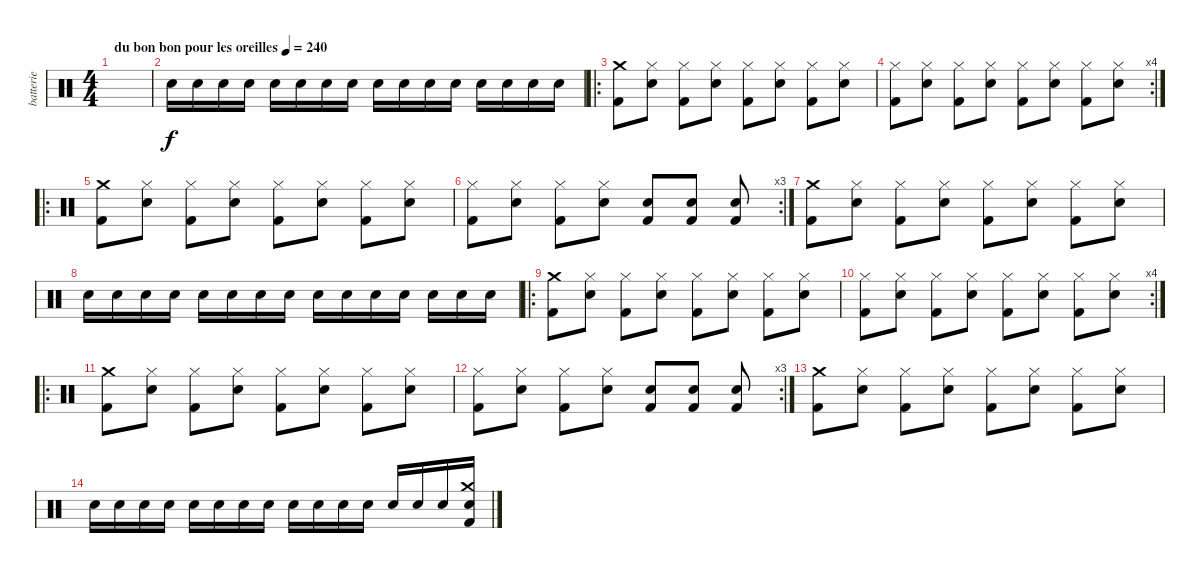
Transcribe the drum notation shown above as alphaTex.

\track ("batterie" "batterie") {instrument percussion}
\staff {score}
\articulation defaults
\ts (4 4)
\tempo (240 "du bon bon pour les oreilles")
\clef neutral
\ks c
|
"Snare (hit) 2".16 "Snare (hit) 2".16 "Snare (hit) 2".16 "Snare (hit) 2".16 "Snare (hit) 2".16 "Snare (hit) 2".16 "Snare (hit) 2".16 "Snare (hit) 2".16 "Snare (hit) 2".16 "Snare (hit) 2".16 "Snare (hit) 2".16 "Snare (hit) 2".16 "Snare (hit) 2".16 "Snare (hit) 2".16 "Snare (hit) 2".16 "Snare (hit) 2".16 |
\ro
("Crash medium (hit)" "Kick (hit) 2").8 ("Hi-Hat (closed)" "Snare (hit) 2").8 ("Hi-Hat (closed)" "Kick (hit) 2").8 ("Hi-Hat (closed)" "Snare (hit) 2").8 ("Hi-Hat (closed)" "Kick (hit) 2").8 ("Hi-Hat (closed)" "Snare (hit) 2").8 ("Hi-Hat (closed)" "Kick (hit) 2").8 ("Hi-Hat (closed)" "Snare (hit) 2").8 |
\rc 4
("Hi-Hat (closed)" "Kick (hit) 2").8 ("Hi-Hat (closed)" "Snare (hit) 2").8 ("Hi-Hat (closed)" "Kick (hit) 2").8 ("Hi-Hat (closed)" "Snare (hit) 2").8 ("Hi-Hat (closed)" "Kick (hit) 2").8 ("Hi-Hat (closed)" "Snare (hit) 2").8 ("Hi-Hat (closed)" "Kick (hit) 2").8 ("Hi-Hat (closed)" "Snare (hit) 2").8 |
\ro
("Crash medium (hit)" "Kick (hit) 2").8 ("Hi-Hat (closed)" "Snare (hit) 2").8 ("Hi-Hat (closed)" "Kick (hit) 2").8 ("Hi-Hat (closed)" "Snare (hit) 2").8 ("Hi-Hat (closed)" "Kick (hit) 2").8 ("Hi-Hat (closed)" "Snare (hit) 2").8 ("Hi-Hat (closed)" "Kick (hit) 2").8 ("Hi-Hat (closed)" "Snare (hit) 2").8 |
\rc 3
("Hi-Hat (closed)" "Kick (hit) 2").8 ("Hi-Hat (closed)" "Snare (hit) 2").8 ("Hi-Hat (closed)" "Kick (hit) 2").8 ("Hi-Hat (closed)" "Snare (hit) 2").8 ("Snare (hit) 2" "Kick (hit) 2").8 ("Snare (hit) 2" "Kick (hit) 2").8 ("Snare (hit) 2" "Kick (hit) 2").8 |
("Crash medium (hit)" "Kick (hit) 2").8 ("Hi-Hat (closed)" "Snare (hit) 2").8 ("Hi-Hat (closed)" "Kick (hit) 2").8 ("Hi-Hat (closed)" "Snare (hit) 2").8 ("Hi-Hat (closed)" "Kick (hit) 2").8 ("Hi-Hat (closed)" "Snare (hit) 2").8 ("Hi-Hat (closed)" "Kick (hit) 2").8 ("Hi-Hat (closed)" "Snare (hit) 2").8 |
"Snare (hit) 2".16 "Snare (hit) 2".16 "Snare (hit) 2".16 "Snare (hit) 2".16 "Snare (hit) 2".16 "Snare (hit) 2".16 "Snare (hit) 2".16 "Snare (hit) 2".16 "Snare (hit) 2".16 "Snare (hit) 2".16 "Snare (hit) 2".16 "Snare (hit) 2".16 "Snare (hit) 2".16 "Snare (hit) 2".16 "Snare (hit) 2".16 |
\ro
("Crash medium (hit)" "Kick (hit) 2").8 ("Hi-Hat (closed)" "Snare (hit) 2").8 ("Hi-Hat (closed)" "Kick (hit) 2").8 ("Hi-Hat (closed)" "Snare (hit) 2").8 ("Hi-Hat (closed)" "Kick (hit) 2").8 ("Hi-Hat (closed)" "Snare (hit) 2").8 ("Hi-Hat (closed)" "Kick (hit) 2").8 ("Hi-Hat (closed)" "Snare (hit) 2").8 |
\rc 4
("Hi-Hat (closed)" "Kick (hit) 2").8 ("Hi-Hat (closed)" "Snare (hit) 2").8 ("Hi-Hat (closed)" "Kick (hit) 2").8 ("Hi-Hat (closed)" "Snare (hit) 2").8 ("Hi-Hat (closed)" "Kick (hit) 2").8 ("Hi-Hat (closed)" "Snare (hit) 2").8 ("Hi-Hat (closed)" "Kick (hit) 2").8 ("Hi-Hat (closed)" "Snare (hit) 2").8 |
\ro
("Crash medium (hit)" "Kick (hit) 2").8 ("Hi-Hat (closed)" "Snare (hit) 2").8 ("Hi-Hat (closed)" "Kick (hit) 2").8 ("Hi-Hat (closed)" "Snare (hit) 2").8 ("Hi-Hat (closed)" "Kick (hit) 2").8 ("Hi-Hat (closed)" "Snare (hit) 2").8 ("Hi-Hat (closed)" "Kick (hit) 2").8 ("Hi-Hat (closed)" "Snare (hit) 2").8 |
\rc 3
("Hi-Hat (closed)" "Kick (hit) 2").8 ("Hi-Hat (closed)" "Snare (hit) 2").8 ("Hi-Hat (closed)" "Kick (hit) 2").8 ("Hi-Hat (closed)" "Snare (hit) 2").8 ("Snare (hit) 2" "Kick (hit) 2").8 ("Snare (hit) 2" "Kick (hit) 2").8 ("Snare (hit) 2" "Kick (hit) 2").8 |
("Crash medium (hit)" "Kick (hit) 2").8 ("Hi-Hat (closed)" "Snare (hit) 2").8 ("Hi-Hat (closed)" "Kick (hit) 2").8 ("Hi-Hat (closed)" "Snare (hit) 2").8 ("Hi-Hat (closed)" "Kick (hit) 2").8 ("Hi-Hat (closed)" "Snare (hit) 2").8 ("Hi-Hat (closed)" "Kick (hit) 2").8 ("Hi-Hat (closed)" "Snare (hit) 2").8 |
"Snare (hit) 2".16 "Snare (hit) 2".16 "Snare (hit) 2".16 "Snare (hit) 2".16 "Snare (hit) 2".16 "Snare (hit) 2".16 "Snare (hit) 2".16 "Snare (hit) 2".16 "Snare (hit) 2".16 "Snare (hit) 2".16 "Snare (hit) 2".16 "Snare (hit) 2".16 "Snare (hit) 2".16 "Snare (hit) 2".16 "Snare (hit) 2".16 ("Crash medium (hit)" "Snare (hit) 2" "Kick (hit) 2").16
